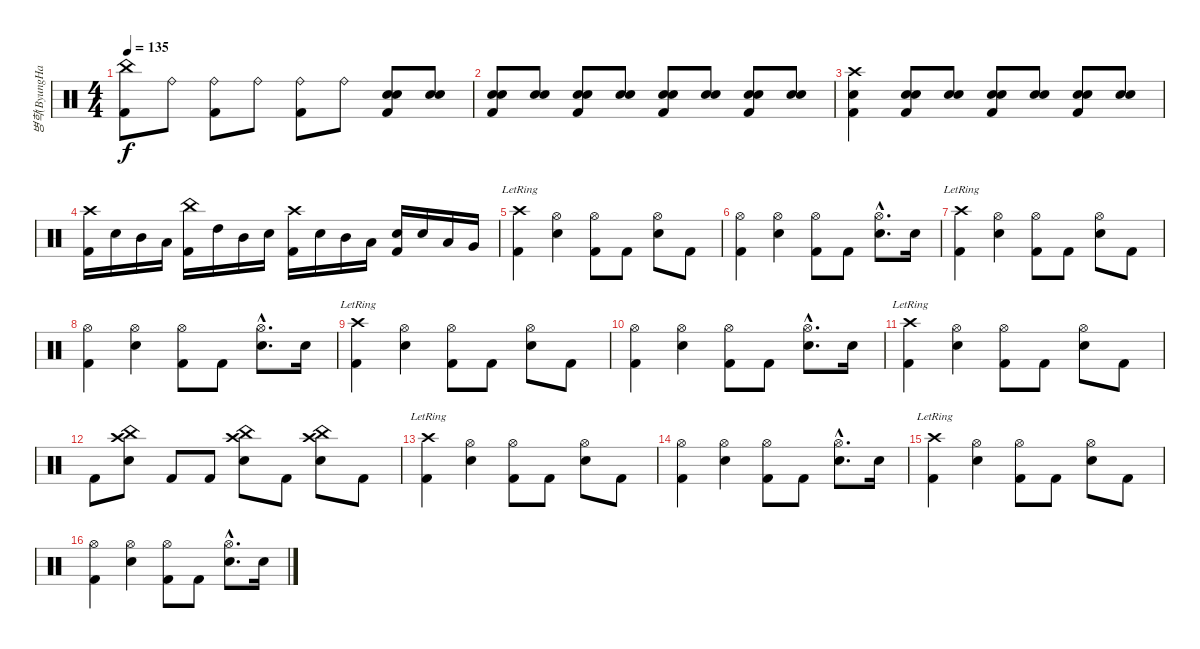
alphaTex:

\track ("병학(ByungHak)" "병학(ByungHa") {instrument percussion}
\staff {score}
\articulation defaults
\ts (4 4)
\tempo 135
\clef neutral
\ks c
("China (hit)" "Kick (hit) 2").8{dy f} "Ride (bell)".8 ("Ride (bell)" "Kick (hit) 2").8 "Ride (bell)".8 ("Ride (bell)" "Kick (hit) 2").8 "Ride (bell)".8 ("Electric Snare (hit)" "Snare (hit) 2" "Kick (hit) 2").8{volume 8} ("Electric Snare (hit)" "Snare (hit) 2").8{volume 9} |
("Electric Snare (hit)" "Snare (hit) 2" "Kick (hit) 2").8{volume 10} ("Electric Snare (hit)" "Snare (hit) 2").8{volume 11} ("Electric Snare (hit)" "Snare (hit) 2" "Kick (hit) 2").8{volume 12} ("Electric Snare (hit)" "Snare (hit) 2").8{volume 13} ("Electric Snare (hit)" "Snare (hit) 2" "Kick (hit) 2").8{volume 14} ("Electric Snare (hit)" "Snare (hit) 2").8{volume 15} ("Electric Snare (hit)" "Snare (hit) 2" "Kick (hit) 2").8{volume 16} ("Electric Snare (hit)" "Snare (hit) 2").8 |
("Crash high (hit)" "Snare (hit) 2" "Kick (hit) 2").4{volume 10} ("Electric Snare (hit)" "Snare (hit) 2" "Kick (hit) 2").8{volume 12} ("Electric Snare (hit)" "Snare (hit) 2").8{volume 13} ("Electric Snare (hit)" "Snare (hit) 2" "Kick (hit) 2").8{volume 14} ("Electric Snare (hit)" "Snare (hit) 2").8{volume 15} ("Electric Snare (hit)" "Snare (hit) 2" "Kick (hit) 2").8{volume 16} ("Electric Snare (hit)" "Snare (hit) 2").8 |
("Crash high (hit)" "Kick (hit) 2").16 "Snare (hit) 2".16 "Mid Tom (hit)".16 "Low Tom (hit)".16 ("China (hit)" "Kick (hit) 2").16 "High Tom (hit)".16 "Mid Tom (hit)".16 "Snare (hit) 2".16 ("Crash high (hit)" "Kick (hit) 2").16 "Snare (hit) 2".16 "Mid Tom (hit)".16 "Low Tom (hit)".16 ("Snare (hit) 2" "Kick (hit) 2").16 "Snare (hit) 2".16 "Low Tom (hit)".16 "Very Low Tom (hit)".16 |
("Crash high (hit)"{lr} "Kick (hit) 2").4 ("Hi-Hat (open)" "Snare (hit) 2").4 ("Hi-Hat (open)" "Kick (hit) 2").8 "Kick (hit) 2".8 ("Hi-Hat (open)" "Snare (hit) 2").8 "Kick (hit) 2".8 |
("Hi-Hat (open)" "Kick (hit) 2").4 ("Hi-Hat (open)" "Snare (hit) 2").4 ("Hi-Hat (open)" "Kick (hit) 2").8 "Kick (hit) 2".8 ("Hi-Hat (open)"{hac} "Snare (hit) 2"{hac}).8{d} "Snare (hit) 2".16 |
("Crash high (hit)"{lr} "Kick (hit) 2").4 ("Hi-Hat (open)" "Snare (hit) 2").4 ("Hi-Hat (open)" "Kick (hit) 2").8 "Kick (hit) 2".8 ("Hi-Hat (open)" "Snare (hit) 2").8 "Kick (hit) 2".8 |
("Hi-Hat (open)" "Kick (hit) 2").4 ("Hi-Hat (open)" "Snare (hit) 2").4 ("Hi-Hat (open)" "Kick (hit) 2").8 "Kick (hit) 2".8 ("Hi-Hat (open)"{hac} "Snare (hit) 2"{hac}).8{d} "Snare (hit) 2".16 |
("Crash high (hit)"{lr} "Kick (hit) 2").4 ("Hi-Hat (open)" "Snare (hit) 2").4 ("Hi-Hat (open)" "Kick (hit) 2").8 "Kick (hit) 2".8 ("Hi-Hat (open)" "Snare (hit) 2").8 "Kick (hit) 2".8 |
("Hi-Hat (open)" "Kick (hit) 2").4 ("Hi-Hat (open)" "Snare (hit) 2").4 ("Hi-Hat (open)" "Kick (hit) 2").8 "Kick (hit) 2".8 ("Hi-Hat (open)"{hac} "Snare (hit) 2"{hac}).8{d} "Snare (hit) 2".16 |
("Crash high (hit)"{lr} "Kick (hit) 2").4 ("Hi-Hat (open)" "Snare (hit) 2").4 ("Hi-Hat (open)" "Kick (hit) 2").8 "Kick (hit) 2".8 ("Hi-Hat (open)" "Snare (hit) 2").8 "Kick (hit) 2".8 |
"Kick (hit) 2".8 ("Crash high (hit)" "China (hit)" "Snare (hit) 2").8 "Kick (hit) 2".8 "Kick (hit) 2".8 ("Crash high (hit)" "China (hit)" "Snare (hit) 2").8 "Kick (hit) 2".8 ("Crash high (hit)" "China (hit)" "Snare (hit) 2").8 "Kick (hit) 2".8 |
("Crash high (hit)"{lr} "Kick (hit) 2").4 ("Hi-Hat (open)" "Snare (hit) 2").4 ("Hi-Hat (open)" "Kick (hit) 2").8 "Kick (hit) 2".8 ("Hi-Hat (open)" "Snare (hit) 2").8 "Kick (hit) 2".8 |
("Hi-Hat (open)" "Kick (hit) 2").4 ("Hi-Hat (open)" "Snare (hit) 2").4 ("Hi-Hat (open)" "Kick (hit) 2").8 "Kick (hit) 2".8 ("Hi-Hat (open)"{hac} "Snare (hit) 2"{hac}).8{d} "Snare (hit) 2".16 |
("Crash high (hit)"{lr} "Kick (hit) 2").4 ("Hi-Hat (open)" "Snare (hit) 2").4 ("Hi-Hat (open)" "Kick (hit) 2").8 "Kick (hit) 2".8 ("Hi-Hat (open)" "Snare (hit) 2").8 "Kick (hit) 2".8 |
("Hi-Hat (open)" "Kick (hit) 2").4 ("Hi-Hat (open)" "Snare (hit) 2").4 ("Hi-Hat (open)" "Kick (hit) 2").8 "Kick (hit) 2".8 ("Hi-Hat (open)"{hac} "Snare (hit) 2"{hac}).8{d} "Snare (hit) 2".16
